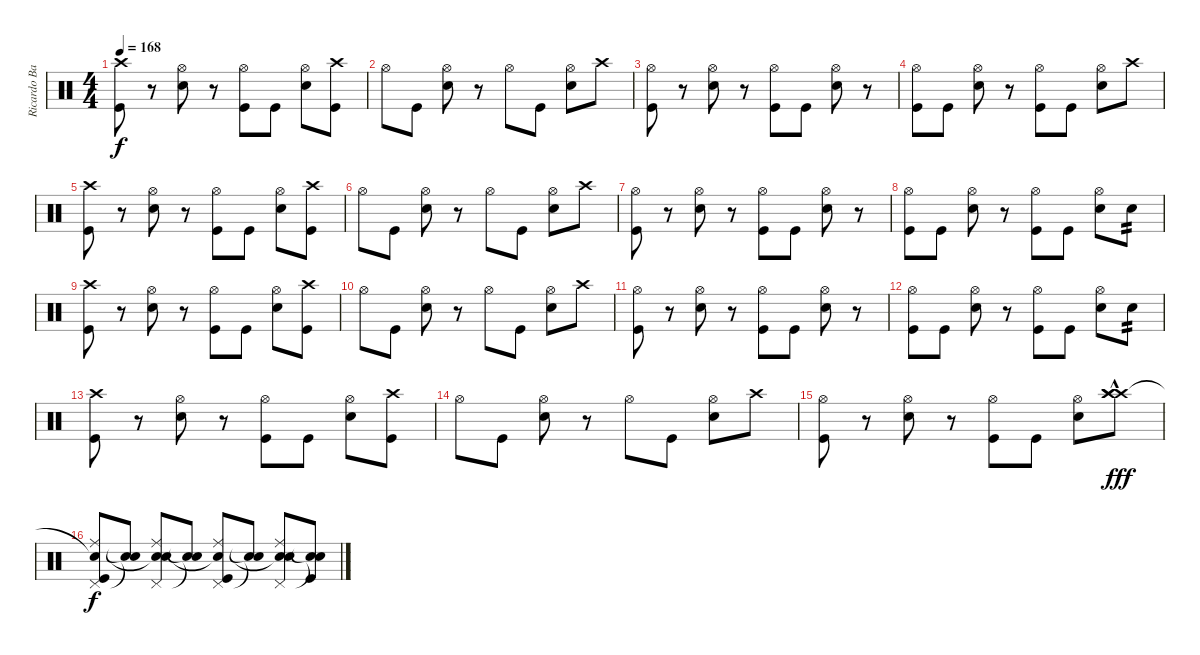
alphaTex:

\track ("Ricardo Barrenechea" "Ricardo Ba") {instrument percussion}
\staff {score}
\articulation defaults
\ts (4 4)
\tempo 168
\clef neutral
\ks c
("Crash high (hit)" "Kick (hit)").8{dy f} r.8 ("Hi-Hat (open)" "Snare (hit) 2").8 r.8 ("Hi-Hat (open)" "Kick (hit)").8 "Kick (hit)".8 ("Hi-Hat (open)" "Snare (hit) 2").8 ("Crash high (hit)" "Kick (hit)").8 |
"Hi-Hat (open)".8 "Kick (hit)".8 ("Hi-Hat (open)" "Snare (hit) 2").8 r.8 "Hi-Hat (open)".8 "Kick (hit)".8 ("Hi-Hat (open)" "Snare (hit) 2").8 "Crash high (hit)".8 |
("Hi-Hat (open)" "Kick (hit)").8 r.8 ("Hi-Hat (open)" "Snare (hit) 2").8 r.8 ("Hi-Hat (open)" "Kick (hit)").8 "Kick (hit)".8 ("Hi-Hat (open)" "Snare (hit) 2").8 r.8 |
("Hi-Hat (open)" "Kick (hit)").8 "Kick (hit)".8 ("Hi-Hat (open)" "Snare (hit) 2").8 r.8 ("Hi-Hat (open)" "Kick (hit)").8 "Kick (hit)".8 ("Hi-Hat (open)" "Snare (hit) 2").8 "Crash high (hit)".8 |
("Crash high (hit)" "Kick (hit)").8 r.8 ("Hi-Hat (open)" "Snare (hit) 2").8 r.8 ("Hi-Hat (open)" "Kick (hit)").8 "Kick (hit)".8 ("Hi-Hat (open)" "Snare (hit) 2").8 ("Crash high (hit)" "Kick (hit)").8 |
"Hi-Hat (open)".8 "Kick (hit)".8 ("Hi-Hat (open)" "Snare (hit) 2").8 r.8 "Hi-Hat (open)".8 "Kick (hit)".8 ("Hi-Hat (open)" "Snare (hit) 2").8 "Crash high (hit)".8 |
("Hi-Hat (open)" "Kick (hit)").8 r.8 ("Hi-Hat (open)" "Snare (hit) 2").8 r.8 ("Hi-Hat (open)" "Kick (hit)").8 "Kick (hit)".8 ("Hi-Hat (open)" "Snare (hit) 2").8 r.8 |
("Hi-Hat (open)" "Kick (hit)").8 "Kick (hit)".8 ("Hi-Hat (open)" "Snare (hit) 2").8 r.8 ("Hi-Hat (open)" "Kick (hit)").8 "Kick (hit)".8 ("Hi-Hat (open)" "Snare (hit) 2").8 "Snare (hit) 2".8{tp 2} |
("Crash high (hit)" "Kick (hit)").8 r.8 ("Hi-Hat (open)" "Snare (hit) 2").8 r.8 ("Hi-Hat (open)" "Kick (hit)").8 "Kick (hit)".8 ("Hi-Hat (open)" "Snare (hit) 2").8 ("Crash high (hit)" "Kick (hit)").8 |
"Hi-Hat (open)".8 "Kick (hit)".8 ("Hi-Hat (open)" "Snare (hit) 2").8 r.8 "Hi-Hat (open)".8 "Kick (hit)".8 ("Hi-Hat (open)" "Snare (hit) 2").8 "Crash high (hit)".8 |
("Hi-Hat (open)" "Kick (hit)").8 r.8 ("Hi-Hat (open)" "Snare (hit) 2").8 r.8 ("Hi-Hat (open)" "Kick (hit)").8 "Kick (hit)".8 ("Hi-Hat (open)" "Snare (hit) 2").8 r.8 |
("Hi-Hat (open)" "Kick (hit)").8 "Kick (hit)".8 ("Hi-Hat (open)" "Snare (hit) 2").8 r.8 ("Hi-Hat (open)" "Kick (hit)").8 "Kick (hit)".8 ("Hi-Hat (open)" "Snare (hit) 2").8 "Snare (hit) 2".8{tp 2} |
("Crash high (hit)" "Kick (hit)").8 r.8 ("Hi-Hat (open)" "Snare (hit) 2").8 r.8 ("Hi-Hat (open)" "Kick (hit)").8 "Kick (hit)".8 ("Hi-Hat (open)" "Snare (hit) 2").8 ("Crash high (hit)" "Kick (hit)").8 |
"Hi-Hat (open)".8 "Kick (hit)".8 ("Hi-Hat (open)" "Snare (hit) 2").8 r.8 "Hi-Hat (open)".8 "Kick (hit)".8 ("Hi-Hat (open)" "Snare (hit) 2").8 "Crash high (hit)".8 |
("Hi-Hat (open)" "Kick (hit)").8 r.8 ("Hi-Hat (open)" "Snare (hit) 2").8 r.8 ("Hi-Hat (open)" "Kick (hit)").8 "Kick (hit)".8 ("Hi-Hat (open)" "Snare (hit) 2").8 ("Crash high (hit)" "Crash high (hit)" "Crash high (hit)"{hac}).8{dy fff} |
("Ride (middle)" "Pedal Hi-Hat (hit)" "Snare (hit)"{t} "Kick (hit)").8{dy f} ("Snare (hit)"{t} "Snare (hit)"{t}).8 ("Ride (middle)" "Pedal Hi-Hat (hit)" "Snare (hit)"{t} "Snare (hit) 2").8 ("Snare (hit)"{t} "Snare (hit)"{t}).8 ("Ride (middle)" "Pedal Hi-Hat (hit)" "Snare (hit)"{t} "Kick (hit)").8 ("Snare (hit)"{t} "Snare (hit)"{t}).8 ("Ride (middle)" "Pedal Hi-Hat (hit)" "Snare (hit)"{t} "Snare (hit) 2").8 ("Snare (hit)"{t} "Snare (hit)"{t} "Kick (hit)").8
